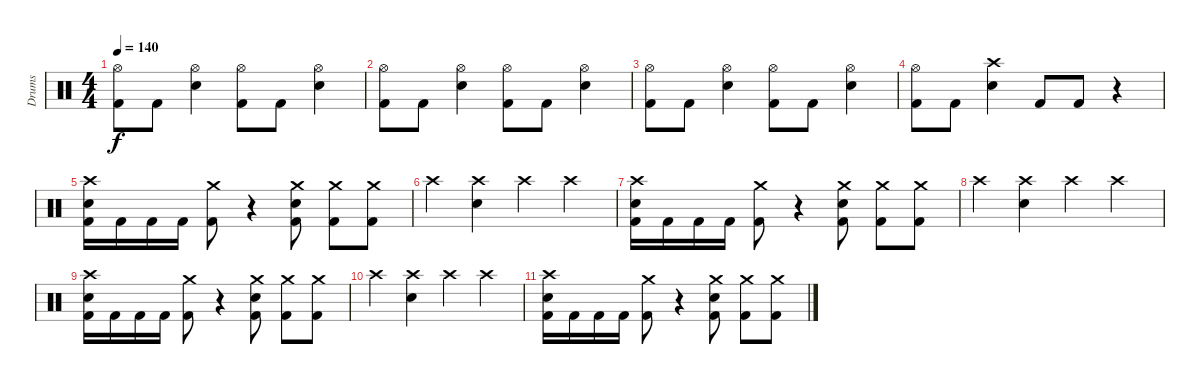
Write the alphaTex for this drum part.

\track ("Drums" "Drums") {instrument percussion}
\staff {score}
\articulation defaults
\ts (4 4)
\tempo 140
\clef neutral
\ks c
("Hi-Hat (open)" "Kick (hit) 2").8{dy f} "Kick (hit) 2".8 ("Hi-Hat (open)" "Electric Snare (hit)").4 ("Hi-Hat (open)" "Kick (hit) 2").8 "Kick (hit) 2".8 ("Hi-Hat (open)" "Electric Snare (hit)").4 |
("Hi-Hat (open)" "Kick (hit) 2").8 "Kick (hit) 2".8 ("Hi-Hat (open)" "Electric Snare (hit)").4 ("Hi-Hat (open)" "Kick (hit) 2").8 "Kick (hit) 2".8 ("Hi-Hat (open)" "Electric Snare (hit)").4 |
("Hi-Hat (open)" "Kick (hit) 2").8 "Kick (hit) 2".8 ("Hi-Hat (open)" "Electric Snare (hit)").4 ("Hi-Hat (open)" "Kick (hit) 2").8 "Kick (hit) 2".8 ("Hi-Hat (open)" "Electric Snare (hit)").4 |
("Hi-Hat (open)" "Kick (hit) 2").8 "Kick (hit) 2".8 ("Crash high (hit)" "Electric Snare (hit)").4 "Kick (hit) 2".8 "Kick (hit) 2".8 r.4 |
("Crash high (hit)" "Electric Snare (hit)" "Kick (hit) 2").16 "Kick (hit) 2".16 "Kick (hit) 2".16 "Kick (hit) 2".16 ("Crash medium (hit)" "Kick (hit) 2").8 r.4 ("Crash medium (hit)" "Electric Snare (hit)" "Kick (hit) 2").8 ("Crash medium (hit)" "Kick (hit) 2").8 ("Crash medium (hit)" "Kick (hit) 2").8 |
"Crash high (hit)".4 ("Crash high (hit)" "Electric Snare (hit)").4 "Crash high (hit)".4 "Crash high (hit)".4 |
("Crash high (hit)" "Electric Snare (hit)" "Kick (hit) 2").16 "Kick (hit) 2".16 "Kick (hit) 2".16 "Kick (hit) 2".16 ("Crash medium (hit)" "Kick (hit) 2").8 r.4 ("Crash medium (hit)" "Electric Snare (hit)" "Kick (hit) 2").8 ("Crash medium (hit)" "Kick (hit) 2").8 ("Crash medium (hit)" "Kick (hit) 2").8 |
"Crash high (hit)".4 ("Crash high (hit)" "Electric Snare (hit)").4 "Crash high (hit)".4 "Crash high (hit)".4 |
("Crash high (hit)" "Electric Snare (hit)" "Kick (hit) 2").16 "Kick (hit) 2".16 "Kick (hit) 2".16 "Kick (hit) 2".16 ("Crash medium (hit)" "Kick (hit) 2").8 r.4 ("Crash medium (hit)" "Electric Snare (hit)" "Kick (hit) 2").8 ("Crash medium (hit)" "Kick (hit) 2").8 ("Crash medium (hit)" "Kick (hit) 2").8 |
"Crash high (hit)".4 ("Crash high (hit)" "Electric Snare (hit)").4 "Crash high (hit)".4 "Crash high (hit)".4 |
("Crash high (hit)" "Electric Snare (hit)" "Kick (hit) 2").16 "Kick (hit) 2".16 "Kick (hit) 2".16 "Kick (hit) 2".16 ("Crash medium (hit)" "Kick (hit) 2").8 r.4 ("Crash medium (hit)" "Electric Snare (hit)" "Kick (hit) 2").8 ("Crash medium (hit)" "Kick (hit) 2").8 ("Crash medium (hit)" "Kick (hit) 2").8
